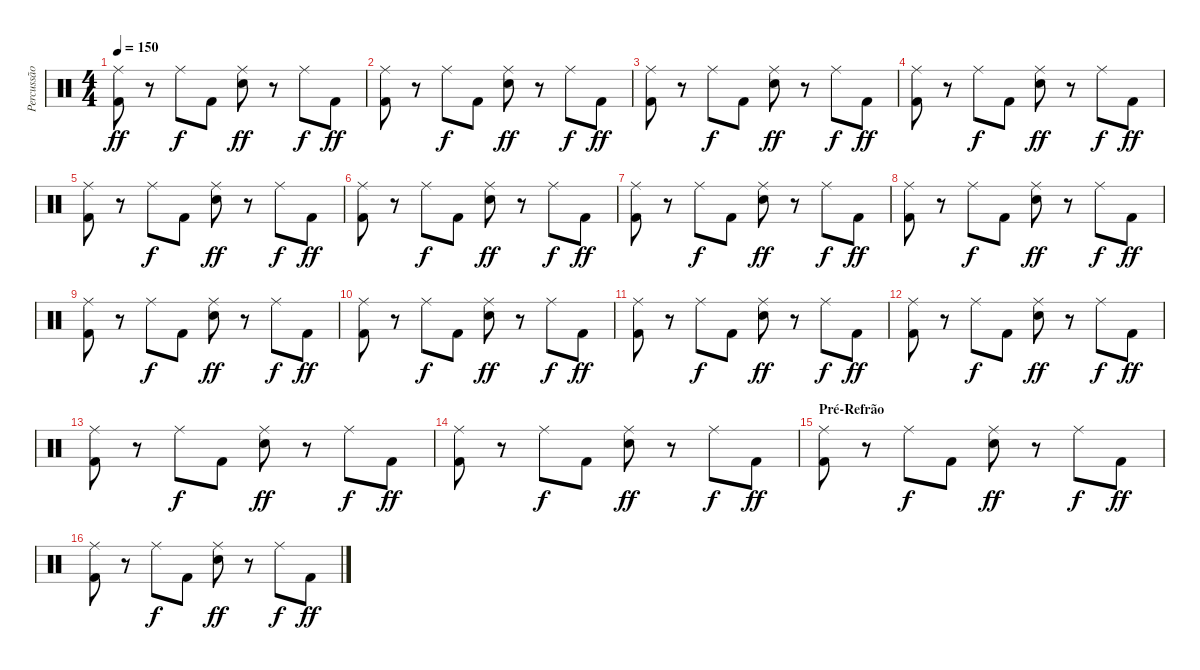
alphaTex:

\track ("Percussão" "Percussão") {instrument percussion}
\staff {score}
\articulation defaults
\ts (4 4)
\tempo 150
\clef neutral
\ks c
("Kick (hit) 2" "Ride (middle)").8{dy ff} r.8 "Ride (middle)".8{dy f} "Kick (hit) 2".8 ("Electric Snare (hit)" "Ride (middle)").8{dy ff} r.8 "Ride (middle)".8{dy f} "Kick (hit) 2".8{dy ff} |
("Kick (hit) 2" "Ride (middle)").8 r.8 "Ride (middle)".8{dy f} "Kick (hit) 2".8 ("Electric Snare (hit)" "Ride (middle)").8{dy ff} r.8 "Ride (middle)".8{dy f} "Kick (hit) 2".8{dy ff} |
("Kick (hit) 2" "Ride (middle)").8 r.8 "Ride (middle)".8{dy f} "Kick (hit) 2".8 ("Electric Snare (hit)" "Ride (middle)").8{dy ff} r.8 "Ride (middle)".8{dy f} "Kick (hit) 2".8{dy ff} |
("Kick (hit) 2" "Ride (middle)").8 r.8 "Ride (middle)".8{dy f} "Kick (hit) 2".8 ("Electric Snare (hit)" "Ride (middle)").8{dy ff} r.8 "Ride (middle)".8{dy f} "Kick (hit) 2".8{dy ff} |
("Kick (hit) 2" "Ride (middle)").8 r.8 "Ride (middle)".8{dy f} "Kick (hit) 2".8 ("Electric Snare (hit)" "Ride (middle)").8{dy ff} r.8 "Ride (middle)".8{dy f} "Kick (hit) 2".8{dy ff} |
("Kick (hit) 2" "Ride (middle)").8 r.8 "Ride (middle)".8{dy f} "Kick (hit) 2".8 ("Electric Snare (hit)" "Ride (middle)").8{dy ff} r.8 "Ride (middle)".8{dy f} "Kick (hit) 2".8{dy ff} |
("Kick (hit) 2" "Ride (middle)").8 r.8 "Ride (middle)".8{dy f} "Kick (hit) 2".8 ("Electric Snare (hit)" "Ride (middle)").8{dy ff} r.8 "Ride (middle)".8{dy f} "Kick (hit) 2".8{dy ff} |
("Kick (hit) 2" "Ride (middle)").8 r.8 "Ride (middle)".8{dy f} "Kick (hit) 2".8 ("Electric Snare (hit)" "Ride (middle)").8{dy ff} r.8 "Ride (middle)".8{dy f} "Kick (hit) 2".8{dy ff} |
("Kick (hit) 2" "Ride (middle)").8 r.8 "Ride (middle)".8{dy f} "Kick (hit) 2".8 ("Electric Snare (hit)" "Ride (middle)").8{dy ff} r.8 "Ride (middle)".8{dy f} "Kick (hit) 2".8{dy ff} |
("Kick (hit) 2" "Ride (middle)").8 r.8 "Ride (middle)".8{dy f} "Kick (hit) 2".8 ("Electric Snare (hit)" "Ride (middle)").8{dy ff} r.8 "Ride (middle)".8{dy f} "Kick (hit) 2".8{dy ff} |
("Kick (hit) 2" "Ride (middle)").8 r.8 "Ride (middle)".8{dy f} "Kick (hit) 2".8 ("Electric Snare (hit)" "Ride (middle)").8{dy ff} r.8 "Ride (middle)".8{dy f} "Kick (hit) 2".8{dy ff} |
("Kick (hit) 2" "Ride (middle)").8 r.8 "Ride (middle)".8{dy f} "Kick (hit) 2".8 ("Electric Snare (hit)" "Ride (middle)").8{dy ff} r.8 "Ride (middle)".8{dy f} "Kick (hit) 2".8{dy ff} |
("Kick (hit) 2" "Ride (middle)").8 r.8 "Ride (middle)".8{dy f} "Kick (hit) 2".8 ("Electric Snare (hit)" "Ride (middle)").8{dy ff} r.8 "Ride (middle)".8{dy f} "Kick (hit) 2".8{dy ff} |
("Kick (hit) 2" "Ride (middle)").8 r.8 "Ride (middle)".8{dy f} "Kick (hit) 2".8 ("Electric Snare (hit)" "Ride (middle)").8{dy ff} r.8 "Ride (middle)".8{dy f} "Kick (hit) 2".8{dy ff} |
\section ("" "Pré-Refrão")
("Kick (hit) 2" "Ride (middle)").8 r.8 "Ride (middle)".8{dy f} "Kick (hit) 2".8 ("Electric Snare (hit)" "Ride (middle)").8{dy ff} r.8 "Ride (middle)".8{dy f} "Kick (hit) 2".8{dy ff} |
("Kick (hit) 2" "Ride (middle)").8 r.8 "Ride (middle)".8{dy f} "Kick (hit) 2".8 ("Electric Snare (hit)" "Ride (middle)").8{dy ff} r.8 "Ride (middle)".8{dy f} "Kick (hit) 2".8{dy ff}
